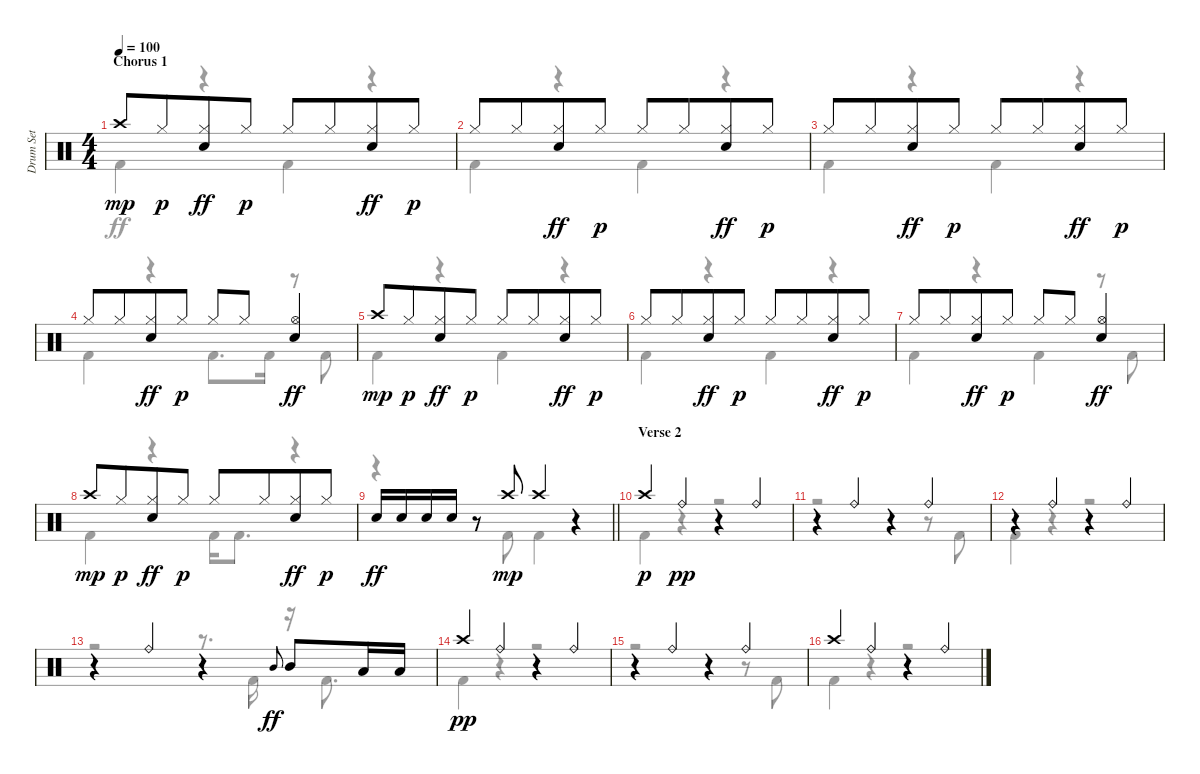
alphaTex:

\track ("Drum Set" "Drum Set") {instrument percussion}
\staff {score}
\articulation defaults
\voice
\ts (4 4)
\section ("" "Chorus 1")
\tempo 100
\clef neutral
\ks c "Crash high (hit)".8{dy mp} "Hi-Hat (closed)".8{dy p beam merge}
("Hi-Hat (closed)" "Electric Snare (hit)").8{dy ff} "Hi-Hat (closed)".8{dy p} "Hi-Hat (closed)".8 "Hi-Hat (closed)".8{beam merge} ("Hi-Hat (closed)" "Electric Snare (hit)").8{dy ff} "Hi-Hat (closed)".8{dy p} |
"Hi-Hat (closed)".8 "Hi-Hat (closed)".8{beam merge} ("Hi-Hat (closed)" "Electric Snare (hit)").8{dy ff} "Hi-Hat (closed)".8{dy p} "Hi-Hat (closed)".8 "Hi-Hat (closed)".8{beam merge} ("Hi-Hat (closed)" "Electric Snare (hit)").8{dy ff} "Hi-Hat (closed)".8{dy p} |
"Hi-Hat (closed)".8 "Hi-Hat (closed)".8{beam merge} ("Hi-Hat (closed)" "Electric Snare (hit)").8{dy ff} "Hi-Hat (closed)".8{dy p} "Hi-Hat (closed)".8 "Hi-Hat (closed)".8{beam merge} ("Hi-Hat (closed)" "Electric Snare (hit)").8{dy ff} "Hi-Hat (closed)".8{dy p} |
"Hi-Hat (closed)".8 "Hi-Hat (closed)".8{beam merge} ("Hi-Hat (closed)" "Electric Snare (hit)").8{dy ff} "Hi-Hat (closed)".8{dy p} "Hi-Hat (closed)".8 "Hi-Hat (closed)".8{beam merge} ("Hi-Hat (open)" "Electric Snare (hit)").4{dy ff} |
"Crash high (hit)".8{dy mp} "Hi-Hat (closed)".8{dy p beam merge} ("Hi-Hat (closed)" "Electric Snare (hit)").8{dy ff} "Hi-Hat (closed)".8{dy p} "Hi-Hat (closed)".8 "Hi-Hat (closed)".8{beam merge} ("Hi-Hat (closed)" "Electric Snare (hit)").8{dy ff} "Hi-Hat (closed)".8{dy p} |
"Hi-Hat (closed)".8 "Hi-Hat (closed)".8{beam merge} ("Hi-Hat (closed)" "Electric Snare (hit)").8{dy ff} "Hi-Hat (closed)".8{dy p} "Hi-Hat (closed)".8 "Hi-Hat (closed)".8{beam merge} ("Hi-Hat (closed)" "Electric Snare (hit)").8{dy ff} "Hi-Hat (closed)".8{dy p} |
"Hi-Hat (closed)".8 "Hi-Hat (closed)".8{beam merge} ("Hi-Hat (closed)" "Electric Snare (hit)").8{dy ff} "Hi-Hat (closed)".8{dy p} "Hi-Hat (closed)".8 "Hi-Hat (closed)".8{beam merge} ("Hi-Hat (open)" "Electric Snare (hit)").4{dy ff} |
"Crash high (hit)".8{dy mp} "Hi-Hat (closed)".8{dy p beam merge} ("Hi-Hat (closed)" "Electric Snare (hit)").8{dy ff} "Hi-Hat (closed)".8{dy p} "Hi-Hat (closed)".8 "Hi-Hat (closed)".8{beam merge} ("Hi-Hat (closed)" "Electric Snare (hit)").8{dy ff} "Hi-Hat (closed)".8{dy p} |
\barLineRight lightlight "Electric Snare (hit)".16{dy ff} "Electric Snare (hit)".16 "Electric Snare (hit)".16 "Electric Snare (hit)".16
r.8 "Crash high (hit)".8{dy mp} "Crash high (hit)".4 r.4 |
\section ("" "Verse 2")
"Crash high (hit)".4{dy p} "Ride (bell)".4{dy pp} r.4 "Ride (bell)".4 |
r.4 "Ride (bell)".4 r.4 "Ride (bell)".4 |
r.4 "Ride (bell)".4 r.4 "Ride (bell)".4 |
r.4 "Ride (bell)".4 r.4 "Mid Tom (hit)".8{gr onbeat dy ff} "Mid Tom (hit)".8 "Low Tom (hit)".16 "Low Tom (hit)".16 |
"Crash high (hit)".4{dy pp} "Ride (bell)".4 r.4 "Ride (bell)".4 |
r.4 "Ride (bell)".4 r.4 "Ride (bell)".4 |
"Crash high (hit)".4 "Ride (bell)".4 r.4 "Ride (bell)".4
\voice
\clef neutral
\ottava regular
\simile none
\ks c "Kick (hit) 2".4{dy ff}
r.4 "Kick (hit) 2".4 r.4 |
"Kick (hit) 2".4 r.4 "Kick (hit) 2".4 r.4 |
"Kick (hit) 2".4 r.4 "Kick (hit) 2".4 r.4 |
"Kick (hit) 2".4 r.4 "Kick (hit) 2".8{d} "Kick (hit) 2".16 r.8 "Kick (hit) 2".8 |
"Kick (hit) 2".4 r.4 "Kick (hit) 2".4 r.4 |
"Kick (hit) 2".4 r.4 "Kick (hit) 2".4 r.4 |
"Kick (hit) 2".4 r.4 "Kick (hit) 2".4 r.8 "Kick (hit) 2".8 |
"Kick (hit) 2".4 r.4 "Kick (hit) 2".16 "Kick (hit) 2".8{d} r.4 |
\barLineRight lightlight
r.4 r.8 "Kick (hit) 2".8 "Kick (hit) 2".4 r.4 |
"Kick (hit) 2".4 r.4 r.2 |
r.2 r.4 r.8 "Kick (hit) 2".8 |
"Kick (hit) 2".4 r.4 r.2 |
r.2 r.8{d} "Kick (hit) 2".16 r.16 "Kick (hit) 2".8{d} |
"Kick (hit) 2".4 r.4 r.2 |
r.2 r.4 r.8 "Kick (hit) 2".8 |
"Kick (hit) 2".4 r.4 r.2
